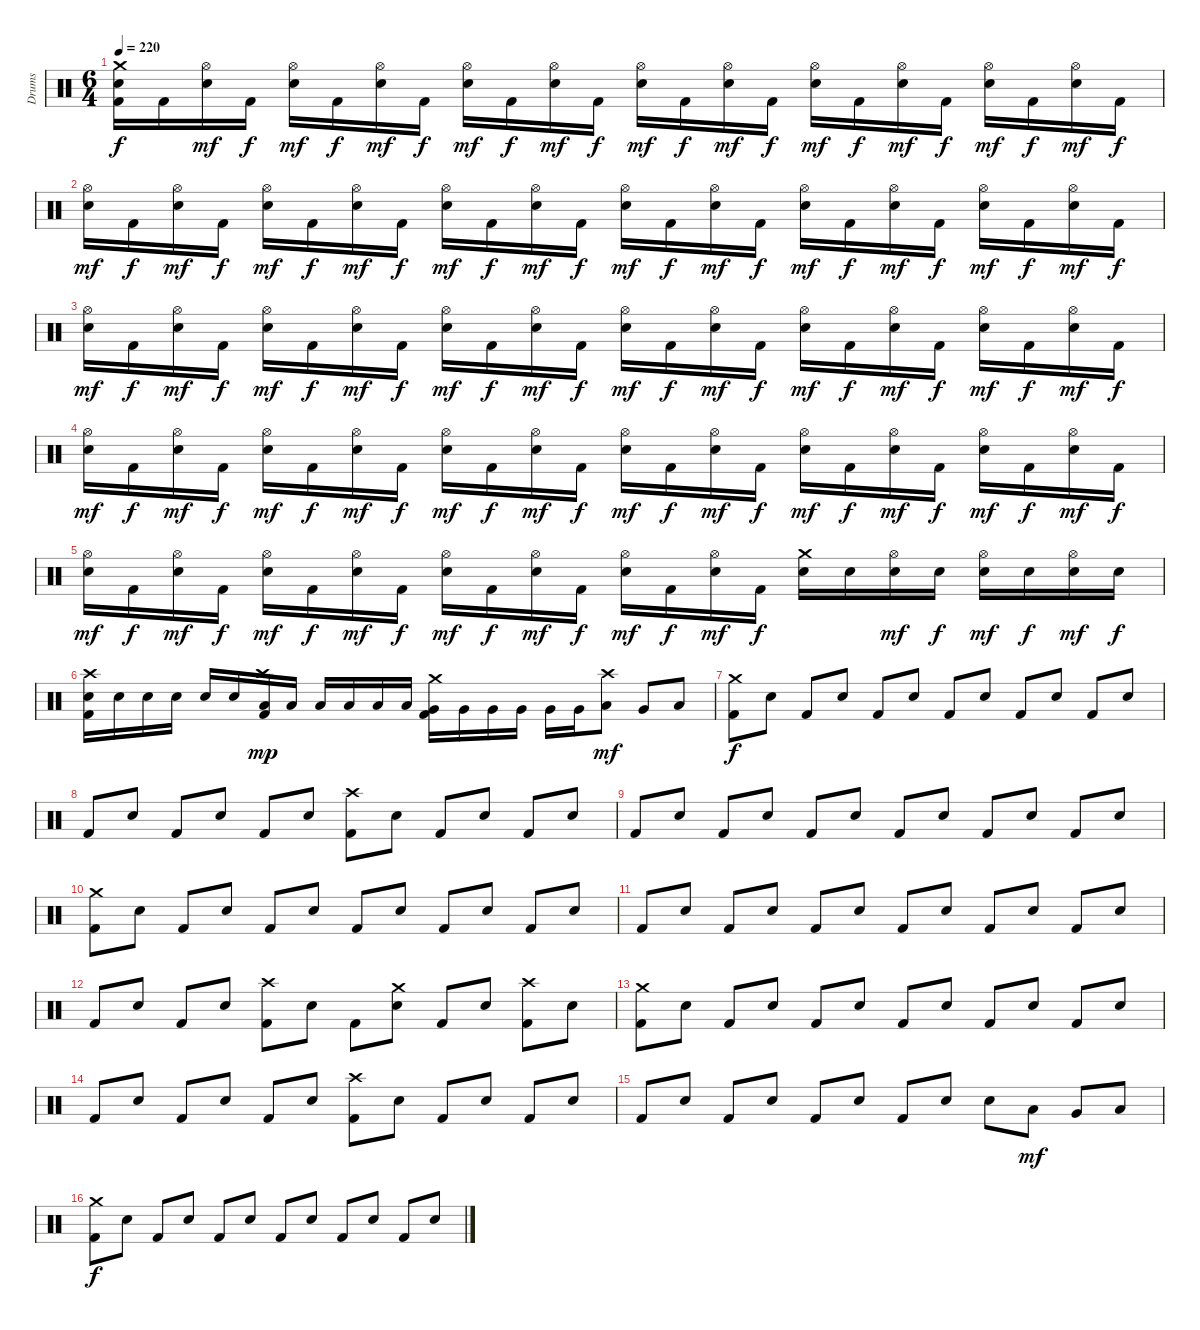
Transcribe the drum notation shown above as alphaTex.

\track ("Drums" "Drums") {instrument percussion}
\staff {score}
\articulation defaults
\ts (6 4)
\tempo 220
\clef neutral
\ks c
("Crash medium (hit)" "Electric Snare (hit)" "Kick (hit) 2").16{dy f} "Kick (hit) 2".16 ("Hi-Hat (open)" "Electric Snare (hit)").16{dy mf} "Kick (hit) 2".16{dy f} ("Hi-Hat (open)" "Electric Snare (hit)").16{dy mf} "Kick (hit) 2".16{dy f} ("Hi-Hat (open)" "Electric Snare (hit)").16{dy mf} "Kick (hit) 2".16{dy f} ("Hi-Hat (open)" "Electric Snare (hit)").16{dy mf} "Kick (hit) 2".16{dy f} ("Hi-Hat (open)" "Electric Snare (hit)").16{dy mf} "Kick (hit) 2".16{dy f} ("Hi-Hat (open)" "Electric Snare (hit)").16{dy mf} "Kick (hit) 2".16{dy f} ("Hi-Hat (open)" "Electric Snare (hit)").16{dy mf} "Kick (hit) 2".16{dy f} ("Hi-Hat (open)" "Electric Snare (hit)").16{dy mf} "Kick (hit) 2".16{dy f} ("Hi-Hat (open)" "Electric Snare (hit)").16{dy mf} "Kick (hit) 2".16{dy f} ("Hi-Hat (open)" "Electric Snare (hit)").16{dy mf} "Kick (hit) 2".16{dy f} ("Hi-Hat (open)" "Electric Snare (hit)").16{dy mf} "Kick (hit) 2".16{dy f} |
("Hi-Hat (open)" "Electric Snare (hit)").16{dy mf} "Kick (hit) 2".16{dy f} ("Hi-Hat (open)" "Electric Snare (hit)").16{dy mf} "Kick (hit) 2".16{dy f} ("Hi-Hat (open)" "Electric Snare (hit)").16{dy mf} "Kick (hit) 2".16{dy f} ("Hi-Hat (open)" "Electric Snare (hit)").16{dy mf} "Kick (hit) 2".16{dy f} ("Hi-Hat (open)" "Electric Snare (hit)").16{dy mf} "Kick (hit) 2".16{dy f} ("Hi-Hat (open)" "Electric Snare (hit)").16{dy mf} "Kick (hit) 2".16{dy f} ("Hi-Hat (open)" "Electric Snare (hit)").16{dy mf} "Kick (hit) 2".16{dy f} ("Hi-Hat (open)" "Electric Snare (hit)").16{dy mf} "Kick (hit) 2".16{dy f} ("Hi-Hat (open)" "Electric Snare (hit)").16{dy mf} "Kick (hit) 2".16{dy f} ("Hi-Hat (open)" "Electric Snare (hit)").16{dy mf} "Kick (hit) 2".16{dy f} ("Hi-Hat (open)" "Electric Snare (hit)").16{dy mf} "Kick (hit) 2".16{dy f} ("Hi-Hat (open)" "Electric Snare (hit)").16{dy mf} "Kick (hit) 2".16{dy f} |
("Hi-Hat (open)" "Electric Snare (hit)").16{dy mf} "Kick (hit) 2".16{dy f} ("Hi-Hat (open)" "Electric Snare (hit)").16{dy mf} "Kick (hit) 2".16{dy f} ("Hi-Hat (open)" "Electric Snare (hit)").16{dy mf} "Kick (hit) 2".16{dy f} ("Hi-Hat (open)" "Electric Snare (hit)").16{dy mf} "Kick (hit) 2".16{dy f} ("Hi-Hat (open)" "Electric Snare (hit)").16{dy mf} "Kick (hit) 2".16{dy f} ("Hi-Hat (open)" "Electric Snare (hit)").16{dy mf} "Kick (hit) 2".16{dy f} ("Hi-Hat (open)" "Electric Snare (hit)").16{dy mf} "Kick (hit) 2".16{dy f} ("Hi-Hat (open)" "Electric Snare (hit)").16{dy mf} "Kick (hit) 2".16{dy f} ("Hi-Hat (open)" "Electric Snare (hit)").16{dy mf} "Kick (hit) 2".16{dy f} ("Hi-Hat (open)" "Electric Snare (hit)").16{dy mf} "Kick (hit) 2".16{dy f} ("Hi-Hat (open)" "Electric Snare (hit)").16{dy mf} "Kick (hit) 2".16{dy f} ("Hi-Hat (open)" "Electric Snare (hit)").16{dy mf} "Kick (hit) 2".16{dy f} |
("Hi-Hat (open)" "Electric Snare (hit)").16{dy mf} "Kick (hit) 2".16{dy f} ("Hi-Hat (open)" "Electric Snare (hit)").16{dy mf} "Kick (hit) 2".16{dy f} ("Hi-Hat (open)" "Electric Snare (hit)").16{dy mf} "Kick (hit) 2".16{dy f} ("Hi-Hat (open)" "Electric Snare (hit)").16{dy mf} "Kick (hit) 2".16{dy f} ("Hi-Hat (open)" "Electric Snare (hit)").16{dy mf} "Kick (hit) 2".16{dy f} ("Hi-Hat (open)" "Electric Snare (hit)").16{dy mf} "Kick (hit) 2".16{dy f} ("Hi-Hat (open)" "Electric Snare (hit)").16{dy mf} "Kick (hit) 2".16{dy f} ("Hi-Hat (open)" "Electric Snare (hit)").16{dy mf} "Kick (hit) 2".16{dy f} ("Hi-Hat (open)" "Electric Snare (hit)").16{dy mf} "Kick (hit) 2".16{dy f} ("Hi-Hat (open)" "Electric Snare (hit)").16{dy mf} "Kick (hit) 2".16{dy f} ("Hi-Hat (open)" "Electric Snare (hit)").16{dy mf} "Kick (hit) 2".16{dy f} ("Hi-Hat (open)" "Electric Snare (hit)").16{dy mf} "Kick (hit) 2".16{dy f} |
("Hi-Hat (open)" "Electric Snare (hit)").16{dy mf} "Kick (hit) 2".16{dy f} ("Hi-Hat (open)" "Electric Snare (hit)").16{dy mf} "Kick (hit) 2".16{dy f} ("Hi-Hat (open)" "Electric Snare (hit)").16{dy mf} "Kick (hit) 2".16{dy f} ("Hi-Hat (open)" "Electric Snare (hit)").16{dy mf} "Kick (hit) 2".16{dy f} ("Hi-Hat (open)" "Electric Snare (hit)").16{dy mf} "Kick (hit) 2".16{dy f} ("Hi-Hat (open)" "Electric Snare (hit)").16{dy mf} "Kick (hit) 2".16{dy f} ("Hi-Hat (open)" "Electric Snare (hit)").16{dy mf} "Kick (hit) 2".16{dy f} ("Hi-Hat (open)" "Electric Snare (hit)").16{dy mf} "Kick (hit) 2".16{dy f} ("Crash medium (hit)" "Electric Snare (hit)").16 "Electric Snare (hit)".16 ("Hi-Hat (open)" "Electric Snare (hit)").16{dy mf} "Electric Snare (hit)".16{dy f} ("Hi-Hat (open)" "Electric Snare (hit)").16{dy mf} "Electric Snare (hit)".16{dy f} ("Hi-Hat (open)" "Electric Snare (hit)").16{dy mf} "Electric Snare (hit)".16{dy f} |
("Crash high (hit)" "Electric Snare (hit)" "Kick (hit) 2").16 "Electric Snare (hit)".16 "Electric Snare (hit)".16 "Electric Snare (hit)".16 "Electric Snare (hit)".16 "Electric Snare (hit)".16 ("Crash high (hit)" "Low Tom (hit)" "Kick (hit) 2").16{dy mp} "Low Tom (hit)".16 "Low Tom (hit)".16 "Low Tom (hit)".16 "Low Tom (hit)".16 "Low Tom (hit)".16 ("Crash medium (hit)" "Very Low Tom (hit)" "Kick (hit) 2").16 "Very Low Tom (hit)".16 "Very Low Tom (hit)".16 "Very Low Tom (hit)".16 "Very Low Tom (hit)".16 "Very Low Tom (hit)".16 ("Crash high (hit)" "Low Tom (hit)").8{dy mf} "Very Low Tom (hit)".8 "Low Floor Tom (hit)".8 |
("Crash medium (hit)" "Kick (hit) 2").8{dy f} "Electric Snare (hit)".8 "Kick (hit) 2".8 "Electric Snare (hit)".8 "Kick (hit) 2".8 "Electric Snare (hit)".8 "Kick (hit) 2".8 "Electric Snare (hit)".8 "Kick (hit) 2".8 "Electric Snare (hit)".8 "Kick (hit) 2".8 "Electric Snare (hit)".8 |
"Kick (hit) 2".8 "Electric Snare (hit)".8 "Kick (hit) 2".8 "Electric Snare (hit)".8 "Kick (hit) 2".8 "Electric Snare (hit)".8 ("Crash high (hit)" "Kick (hit) 2").8 "Electric Snare (hit)".8 "Kick (hit) 2".8 "Electric Snare (hit)".8 "Kick (hit) 2".8 "Electric Snare (hit)".8 |
"Kick (hit) 2".8 "Electric Snare (hit)".8 "Kick (hit) 2".8 "Electric Snare (hit)".8 "Kick (hit) 2".8 "Electric Snare (hit)".8 "Kick (hit) 2".8 "Electric Snare (hit)".8 "Kick (hit) 2".8 "Electric Snare (hit)".8 "Kick (hit) 2".8 "Electric Snare (hit)".8 |
("Crash medium (hit)" "Kick (hit) 2").8 "Electric Snare (hit)".8 "Kick (hit) 2".8 "Electric Snare (hit)".8 "Kick (hit) 2".8 "Electric Snare (hit)".8 "Kick (hit) 2".8 "Electric Snare (hit)".8 "Kick (hit) 2".8 "Electric Snare (hit)".8 "Kick (hit) 2".8 "Electric Snare (hit)".8 |
"Kick (hit) 2".8 "Electric Snare (hit)".8 "Kick (hit) 2".8 "Electric Snare (hit)".8 "Kick (hit) 2".8 "Electric Snare (hit)".8 "Kick (hit) 2".8 "Electric Snare (hit)".8 "Kick (hit) 2".8 "Electric Snare (hit)".8 "Kick (hit) 2".8 "Electric Snare (hit)".8 |
"Kick (hit) 2".8 "Electric Snare (hit)".8 "Kick (hit) 2".8 "Electric Snare (hit)".8 ("Crash high (hit)" "Kick (hit) 2").8 "Electric Snare (hit)".8 "Kick (hit) 2".8 ("Crash medium (hit)" "Electric Snare (hit)").8 "Kick (hit) 2".8 "Electric Snare (hit)".8 ("Crash high (hit)" "Kick (hit) 2").8 "Electric Snare (hit)".8 |
("Crash medium (hit)" "Kick (hit) 2").8 "Electric Snare (hit)".8 "Kick (hit) 2".8 "Electric Snare (hit)".8 "Kick (hit) 2".8 "Electric Snare (hit)".8 "Kick (hit) 2".8 "Electric Snare (hit)".8 "Kick (hit) 2".8 "Electric Snare (hit)".8 "Kick (hit) 2".8 "Electric Snare (hit)".8 |
"Kick (hit) 2".8 "Electric Snare (hit)".8 "Kick (hit) 2".8 "Electric Snare (hit)".8 "Kick (hit) 2".8 "Electric Snare (hit)".8 ("Crash high (hit)" "Kick (hit) 2").8 "Electric Snare (hit)".8 "Kick (hit) 2".8 "Electric Snare (hit)".8 "Kick (hit) 2".8 "Electric Snare (hit)".8 |
"Kick (hit) 2".8 "Electric Snare (hit)".8 "Kick (hit) 2".8 "Electric Snare (hit)".8 "Kick (hit) 2".8 "Electric Snare (hit)".8 "Kick (hit) 2".8 "Electric Snare (hit)".8 "Electric Snare (hit)".8 "Low Tom (hit)".8{dy mf} "Very Low Tom (hit)".8 "Low Floor Tom (hit)".8 |
("Crash medium (hit)" "Kick (hit) 2").8{dy f} "Electric Snare (hit)".8 "Kick (hit) 2".8 "Electric Snare (hit)".8 "Kick (hit) 2".8 "Electric Snare (hit)".8 "Kick (hit) 2".8 "Electric Snare (hit)".8 "Kick (hit) 2".8 "Electric Snare (hit)".8 "Kick (hit) 2".8 "Electric Snare (hit)".8
